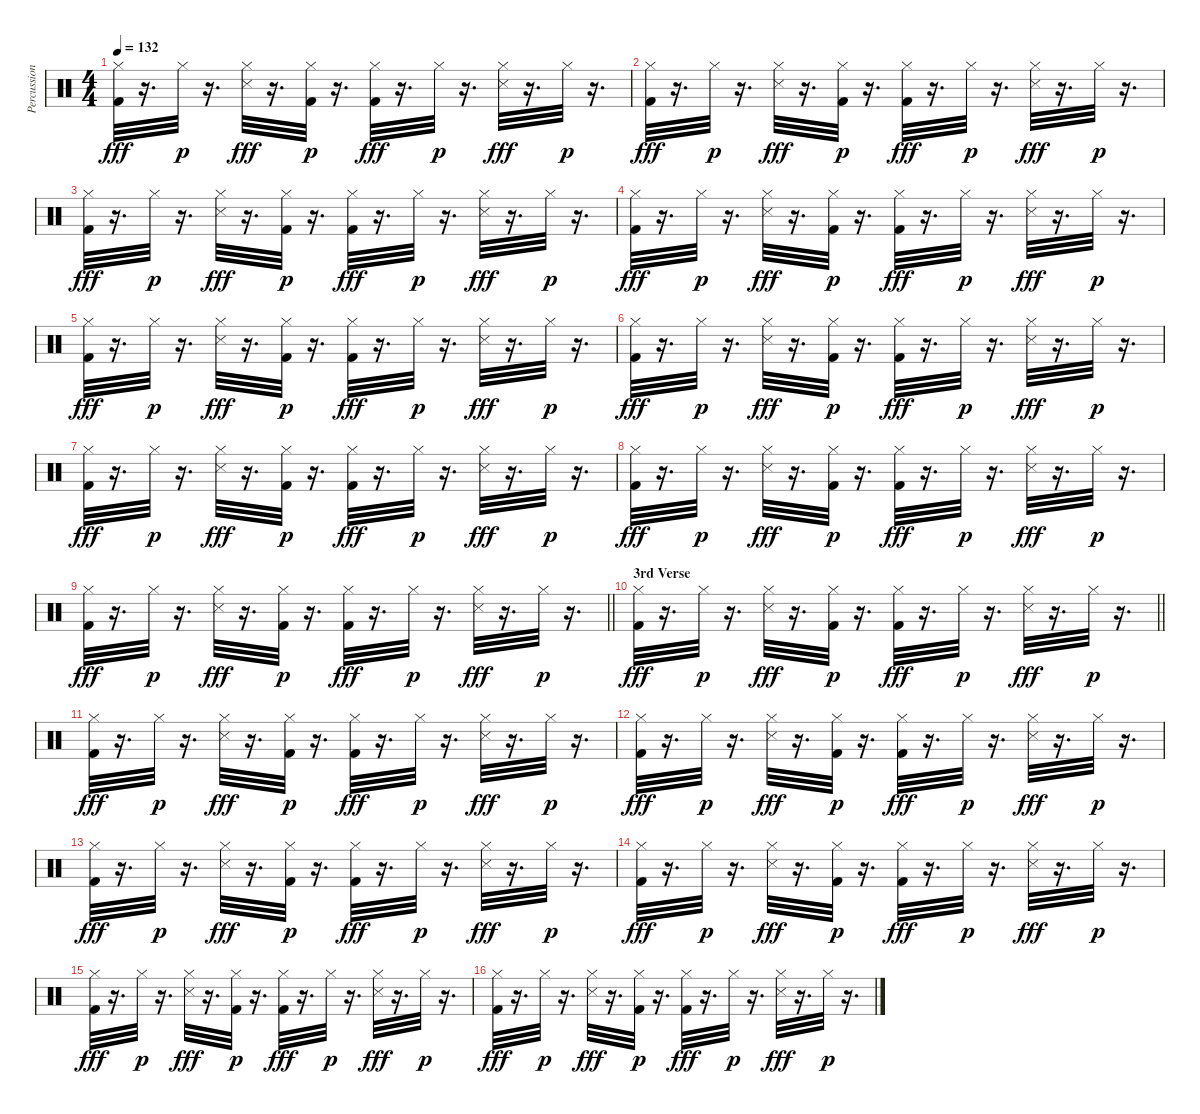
\track ("Percussion" "Percussion") {instrument percussion}
\staff {score}
\articulation defaults
\ts (4 4)
\tempo 132
\clef neutral
\ks c
("Kick (hit) 2" "Hi-Hat (closed)").32{dy fff} r.16{d} "Hi-Hat (closed)".32{dy p} r.16{d} ("Snare (side stick) 3" "Hi-Hat (closed)").32{dy fff} r.16{d} ("Kick (hit) 2" "Hi-Hat (closed)").32{dy p} r.16{d} ("Kick (hit) 2" "Hi-Hat (closed)").32{dy fff} r.16{d} "Hi-Hat (closed)".32{dy p} r.16{d} ("Hi-Hat (closed)" "Snare (side stick) 3").32{dy fff} r.16{d} "Hi-Hat (closed)".32{dy p} r.16{d} |
("Kick (hit) 2" "Hi-Hat (closed)").32{dy fff} r.16{d} "Hi-Hat (closed)".32{dy p} r.16{d} ("Snare (side stick) 3" "Hi-Hat (closed)").32{dy fff} r.16{d} ("Kick (hit) 2" "Hi-Hat (closed)").32{dy p} r.16{d} ("Kick (hit) 2" "Hi-Hat (closed)").32{dy fff} r.16{d} "Hi-Hat (closed)".32{dy p} r.16{d} ("Hi-Hat (closed)" "Snare (side stick) 3").32{dy fff} r.16{d} "Hi-Hat (closed)".32{dy p} r.16{d} |
("Kick (hit) 2" "Hi-Hat (closed)").32{dy fff} r.16{d} "Hi-Hat (closed)".32{dy p} r.16{d} ("Snare (side stick) 3" "Hi-Hat (closed)").32{dy fff} r.16{d} ("Kick (hit) 2" "Hi-Hat (closed)").32{dy p} r.16{d} ("Kick (hit) 2" "Hi-Hat (closed)").32{dy fff} r.16{d} "Hi-Hat (closed)".32{dy p} r.16{d} ("Snare (side stick) 3" "Hi-Hat (closed)").32{dy fff} r.16{d} "Hi-Hat (closed)".32{dy p} r.16{d} |
("Kick (hit) 2" "Hi-Hat (closed)").32{dy fff} r.16{d} "Hi-Hat (closed)".32{dy p} r.16{d} ("Snare (side stick) 3" "Hi-Hat (closed)").32{dy fff} r.16{d} ("Kick (hit) 2" "Hi-Hat (closed)").32{dy p} r.16{d} ("Kick (hit) 2" "Hi-Hat (closed)").32{dy fff} r.16{d} "Hi-Hat (closed)".32{dy p} r.16{d} ("Hi-Hat (closed)" "Snare (side stick) 3").32{dy fff} r.16{d} "Hi-Hat (closed)".32{dy p} r.16{d} |
("Kick (hit) 2" "Hi-Hat (closed)").32{dy fff} r.16{d} "Hi-Hat (closed)".32{dy p} r.16{d} ("Hi-Hat (closed)" "Snare (side stick) 3").32{dy fff} r.16{d} ("Kick (hit) 2" "Hi-Hat (closed)").32{dy p} r.16{d} ("Kick (hit) 2" "Hi-Hat (closed)").32{dy fff} r.16{d} "Hi-Hat (closed)".32{dy p} r.16{d} ("Snare (side stick) 3" "Hi-Hat (closed)").32{dy fff} r.16{d} "Hi-Hat (closed)".32{dy p} r.16{d} |
("Kick (hit) 2" "Hi-Hat (closed)").32{dy fff} r.16{d} "Hi-Hat (closed)".32{dy p} r.16{d} ("Snare (side stick) 3" "Hi-Hat (closed)").32{dy fff} r.16{d} ("Kick (hit) 2" "Hi-Hat (closed)").32{dy p} r.16{d} ("Kick (hit) 2" "Hi-Hat (closed)").32{dy fff} r.16{d} "Hi-Hat (closed)".32{dy p} r.16{d} ("Hi-Hat (closed)" "Snare (side stick) 3").32{dy fff} r.16{d} "Hi-Hat (closed)".32{dy p} r.16{d} |
("Kick (hit) 2" "Hi-Hat (closed)").32{dy fff} r.16{d} "Hi-Hat (closed)".32{dy p} r.16{d} ("Hi-Hat (closed)" "Snare (side stick) 3").32{dy fff} r.16{d} ("Kick (hit) 2" "Hi-Hat (closed)").32{dy p} r.16{d} ("Kick (hit) 2" "Hi-Hat (closed)").32{dy fff} r.16{d} "Hi-Hat (closed)".32{dy p} r.16{d} ("Snare (side stick) 3" "Hi-Hat (closed)").32{dy fff} r.16{d} "Hi-Hat (closed)".32{dy p} r.16{d} |
("Kick (hit) 2" "Hi-Hat (closed)").32{dy fff} r.16{d} "Hi-Hat (closed)".32{dy p} r.16{d} ("Snare (side stick) 3" "Hi-Hat (closed)").32{dy fff} r.16{d} ("Kick (hit) 2" "Hi-Hat (closed)").32{dy p} r.16{d} ("Kick (hit) 2" "Hi-Hat (closed)").32{dy fff} r.16{d} "Hi-Hat (closed)".32{dy p} r.16{d} ("Hi-Hat (closed)" "Snare (side stick) 3").32{dy fff} r.16{d} "Hi-Hat (closed)".32{dy p} r.16{d} |
\barLineRight lightlight
("Kick (hit) 2" "Hi-Hat (closed)").32{dy fff} r.16{d} "Hi-Hat (closed)".32{dy p} r.16{d} ("Hi-Hat (closed)" "Snare (side stick) 3").32{dy fff} r.16{d} ("Kick (hit) 2" "Hi-Hat (closed)").32{dy p} r.16{d} ("Kick (hit) 2" "Hi-Hat (closed)").32{dy fff} r.16{d} "Hi-Hat (closed)".32{dy p} r.16{d} ("Snare (side stick) 3" "Hi-Hat (closed)").32{dy fff} r.16{d} "Hi-Hat (closed)".32{dy p} r.16{d} |
\section ("" "3rd Verse")
\barLineRight lightlight
("Kick (hit) 2" "Hi-Hat (closed)").32{dy fff} r.16{d} "Hi-Hat (closed)".32{dy p} r.16{d} ("Snare (side stick) 3" "Hi-Hat (closed)").32{dy fff} r.16{d} ("Kick (hit) 2" "Hi-Hat (closed)").32{dy p} r.16{d} ("Kick (hit) 2" "Hi-Hat (closed)").32{dy fff} r.16{d} "Hi-Hat (closed)".32{dy p} r.16{d} ("Hi-Hat (closed)" "Snare (side stick) 3").32{dy fff} r.16{d} "Hi-Hat (closed)".32{dy p} r.16{d} |
("Kick (hit) 2" "Hi-Hat (closed)").32{dy fff} r.16{d} "Hi-Hat (closed)".32{dy p} r.16{d} ("Snare (side stick) 3" "Hi-Hat (closed)").32{dy fff} r.16{d} ("Kick (hit) 2" "Hi-Hat (closed)").32{dy p} r.16{d} ("Kick (hit) 2" "Hi-Hat (closed)").32{dy fff} r.16{d} "Hi-Hat (closed)".32{dy p} r.16{d} ("Snare (side stick) 3" "Hi-Hat (closed)").32{dy fff} r.16{d} "Hi-Hat (closed)".32{dy p} r.16{d} |
("Kick (hit) 2" "Hi-Hat (closed)").32{dy fff} r.16{d} "Hi-Hat (closed)".32{dy p} r.16{d} ("Snare (side stick) 3" "Hi-Hat (closed)").32{dy fff} r.16{d} ("Kick (hit) 2" "Hi-Hat (closed)").32{dy p} r.16{d} ("Kick (hit) 2" "Hi-Hat (closed)").32{dy fff} r.16{d} "Hi-Hat (closed)".32{dy p} r.16{d} ("Snare (side stick) 3" "Hi-Hat (closed)").32{dy fff} r.16{d} "Hi-Hat (closed)".32{dy p} r.16{d} |
("Kick (hit) 2" "Hi-Hat (closed)").32{dy fff} r.16{d} "Hi-Hat (closed)".32{dy p} r.16{d} ("Hi-Hat (closed)" "Snare (side stick) 3").32{dy fff} r.16{d} ("Kick (hit) 2" "Hi-Hat (closed)").32{dy p} r.16{d} ("Kick (hit) 2" "Hi-Hat (closed)").32{dy fff} r.16{d} "Hi-Hat (closed)".32{dy p} r.16{d} ("Snare (side stick) 3" "Hi-Hat (closed)").32{dy fff} r.16{d} "Hi-Hat (closed)".32{dy p} r.16{d} |
("Kick (hit) 2" "Hi-Hat (closed)").32{dy fff} r.16{d} "Hi-Hat (closed)".32{dy p} r.16{d} ("Hi-Hat (closed)" "Snare (side stick) 3").32{dy fff} r.16{d} ("Kick (hit) 2" "Hi-Hat (closed)").32{dy p} r.16{d} ("Kick (hit) 2" "Hi-Hat (closed)").32{dy fff} r.16{d} "Hi-Hat (closed)".32{dy p} r.16{d} ("Snare (side stick) 3" "Hi-Hat (closed)").32{dy fff} r.16{d} "Hi-Hat (closed)".32{dy p} r.16{d} |
("Kick (hit) 2" "Hi-Hat (closed)").32{dy fff} r.16{d} "Hi-Hat (closed)".32{dy p} r.16{d} ("Snare (side stick) 3" "Hi-Hat (closed)").32{dy fff} r.16{d} ("Kick (hit) 2" "Hi-Hat (closed)").32{dy p} r.16{d} ("Kick (hit) 2" "Hi-Hat (closed)").32{dy fff} r.16{d} "Hi-Hat (closed)".32{dy p} r.16{d} ("Snare (side stick) 3" "Hi-Hat (closed)").32{dy fff} r.16{d} "Hi-Hat (closed)".32{dy p} r.16{d} |
("Kick (hit) 2" "Hi-Hat (closed)").32{dy fff} r.16{d} "Hi-Hat (closed)".32{dy p} r.16{d} ("Snare (side stick) 3" "Hi-Hat (closed)").32{dy fff} r.16{d} ("Kick (hit) 2" "Hi-Hat (closed)").32{dy p} r.16{d} ("Kick (hit) 2" "Hi-Hat (closed)").32{dy fff} r.16{d} "Hi-Hat (closed)".32{dy p} r.16{d} ("Hi-Hat (closed)" "Snare (side stick) 3").32{dy fff} r.16{d} "Hi-Hat (closed)".32{dy p} r.16{d}
